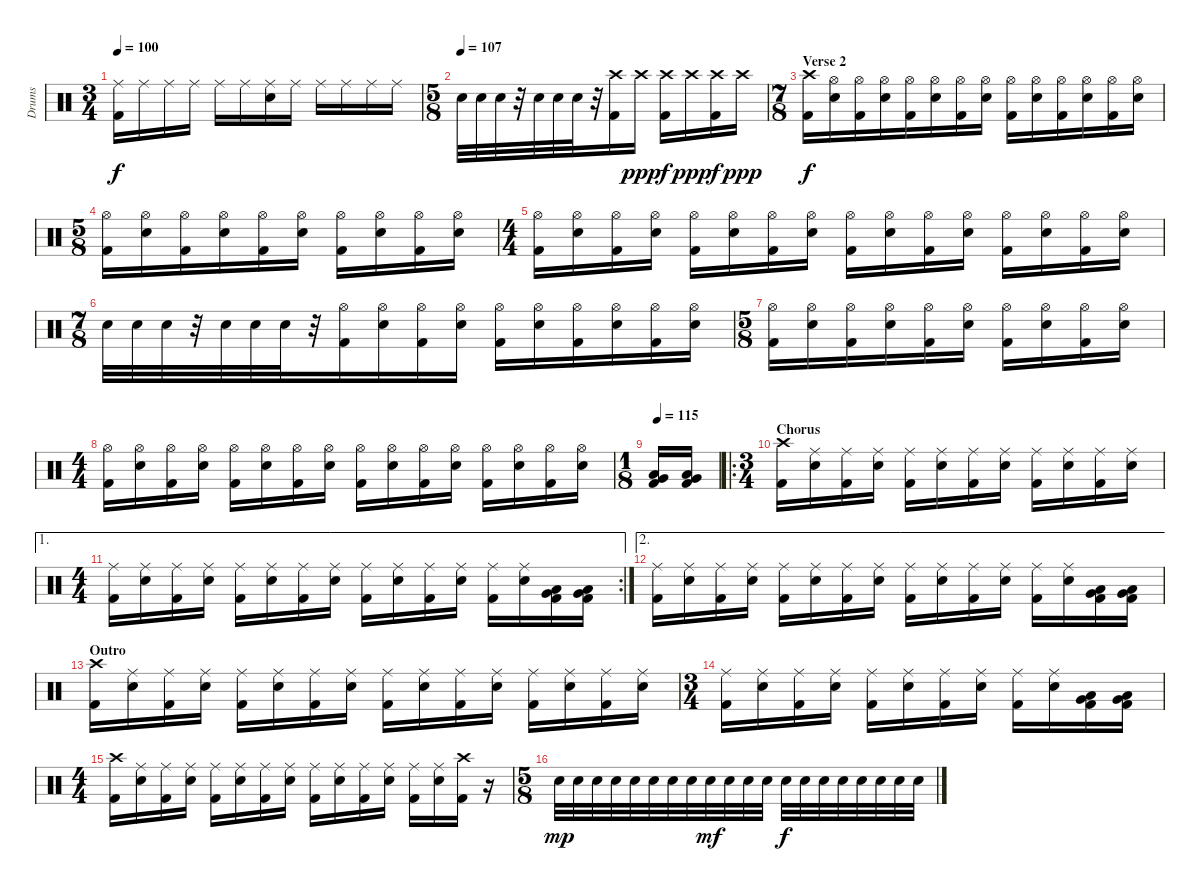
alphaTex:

\track ("Drums" "Drums") {instrument percussion}
\staff {score}
\articulation defaults
\ts (3 4)
\tempo 100
\clef neutral
\ks c
("Ride (middle)" "Kick (hit) 2").16{dy f} "Ride (middle)".16 "Ride (middle)".16 "Ride (middle)".16 "Ride (middle)".16 "Ride (middle)".16 ("Ride (middle)" "Electric Snare (hit)").16 "Ride (middle)".16 "Ride (middle)".16 "Ride (middle)".16 "Ride (middle)".16 "Ride (middle)".16 |
\ts (5 8)
\tempo (107)
"Electric Snare (hit)".32 "Electric Snare (hit)".32 "Electric Snare (hit)".32 r.32 "Electric Snare (hit)".32 "Electric Snare (hit)".32 "Electric Snare (hit)".32 r.32 ("Crash high (hit)" "Kick (hit) 2").16 "Crash high (hit)".16{dy ppp} ("Crash high (hit)" "Kick (hit) 2").16{dy f} "Crash high (hit)".16{dy ppp} ("Crash high (hit)" "Kick (hit) 2").16{dy f} "Crash high (hit)".16{dy ppp} |
\ts (7 8)
\section ("" "Verse 2")
("Crash high (hit)" "Kick (hit) 2").16{dy f} ("Hi-Hat (open)" "Electric Snare (hit)").16 ("Hi-Hat (open)" "Kick (hit) 2").16 ("Hi-Hat (open)" "Electric Snare (hit)").16 ("Hi-Hat (open)" "Kick (hit) 2").16 ("Hi-Hat (open)" "Electric Snare (hit)").16 ("Hi-Hat (open)" "Kick (hit) 2").16 ("Hi-Hat (open)" "Electric Snare (hit)").16 ("Hi-Hat (open)" "Kick (hit) 2").16 ("Hi-Hat (open)" "Electric Snare (hit)").16 ("Hi-Hat (open)" "Kick (hit) 2").16 ("Hi-Hat (open)" "Electric Snare (hit)").16 ("Hi-Hat (open)" "Kick (hit) 2").16 ("Hi-Hat (open)" "Electric Snare (hit)").16 |
\ts (5 8)
("Hi-Hat (open)" "Kick (hit) 2").16 ("Hi-Hat (open)" "Electric Snare (hit)").16 ("Hi-Hat (open)" "Kick (hit) 2").16 ("Hi-Hat (open)" "Electric Snare (hit)").16 ("Hi-Hat (open)" "Kick (hit) 2").16 ("Hi-Hat (open)" "Electric Snare (hit)").16 ("Hi-Hat (open)" "Kick (hit) 2").16 ("Hi-Hat (open)" "Electric Snare (hit)").16 ("Hi-Hat (open)" "Kick (hit) 2").16 ("Hi-Hat (open)" "Electric Snare (hit)").16 |
\ts (4 4)
("Hi-Hat (open)" "Kick (hit) 2").16 ("Hi-Hat (open)" "Electric Snare (hit)").16 ("Hi-Hat (open)" "Kick (hit) 2").16 ("Hi-Hat (open)" "Electric Snare (hit)").16 ("Hi-Hat (open)" "Kick (hit) 2").16 ("Hi-Hat (open)" "Electric Snare (hit)").16 ("Hi-Hat (open)" "Kick (hit) 2").16 ("Hi-Hat (open)" "Electric Snare (hit)").16 ("Hi-Hat (open)" "Kick (hit) 2").16 ("Hi-Hat (open)" "Electric Snare (hit)").16 ("Hi-Hat (open)" "Kick (hit) 2").16 ("Hi-Hat (open)" "Electric Snare (hit)").16 ("Hi-Hat (open)" "Kick (hit) 2").16 ("Hi-Hat (open)" "Electric Snare (hit)").16 ("Hi-Hat (open)" "Kick (hit) 2").16 ("Hi-Hat (open)" "Electric Snare (hit)").16 |
\ts (7 8)
"Electric Snare (hit)".32 "Electric Snare (hit)".32 "Electric Snare (hit)".32 r.32 "Electric Snare (hit)".32 "Electric Snare (hit)".32 "Electric Snare (hit)".32 r.32 ("Hi-Hat (open)" "Kick (hit) 2").16 ("Hi-Hat (open)" "Electric Snare (hit)").16 ("Hi-Hat (open)" "Kick (hit) 2").16 ("Hi-Hat (open)" "Electric Snare (hit)").16 ("Hi-Hat (open)" "Kick (hit) 2").16 ("Hi-Hat (open)" "Electric Snare (hit)").16 ("Hi-Hat (open)" "Kick (hit) 2").16 ("Hi-Hat (open)" "Electric Snare (hit)").16 ("Hi-Hat (open)" "Kick (hit) 2").16 ("Hi-Hat (open)" "Electric Snare (hit)").16 |
\ts (5 8)
("Hi-Hat (open)" "Kick (hit) 2").16 ("Hi-Hat (open)" "Electric Snare (hit)").16 ("Hi-Hat (open)" "Kick (hit) 2").16 ("Hi-Hat (open)" "Electric Snare (hit)").16 ("Hi-Hat (open)" "Kick (hit) 2").16 ("Hi-Hat (open)" "Electric Snare (hit)").16 ("Hi-Hat (open)" "Kick (hit) 2").16 ("Hi-Hat (open)" "Electric Snare (hit)").16 ("Hi-Hat (open)" "Kick (hit) 2").16 ("Hi-Hat (open)" "Electric Snare (hit)").16 |
\ts (4 4)
("Hi-Hat (open)" "Kick (hit) 2").16 ("Hi-Hat (open)" "Electric Snare (hit)").16 ("Hi-Hat (open)" "Kick (hit) 2").16 ("Hi-Hat (open)" "Electric Snare (hit)").16 ("Hi-Hat (open)" "Kick (hit) 2").16 ("Hi-Hat (open)" "Electric Snare (hit)").16 ("Hi-Hat (open)" "Kick (hit) 2").16 ("Hi-Hat (open)" "Electric Snare (hit)").16 ("Hi-Hat (open)" "Kick (hit) 2").16 ("Hi-Hat (open)" "Electric Snare (hit)").16 ("Hi-Hat (open)" "Kick (hit) 2").16 ("Hi-Hat (open)" "Electric Snare (hit)").16 ("Hi-Hat (open)" "Kick (hit) 2").16 ("Hi-Hat (open)" "Electric Snare (hit)").16 ("Hi-Hat (open)" "Kick (hit) 2").16 ("Hi-Hat (open)" "Electric Snare (hit)").16 |
\ts (1 8)
\tempo 115
("Very Low Tom (hit)" "Low Floor Tom (hit)" "Kick (hit) 2").16 ("Very Low Tom (hit)" "Low Floor Tom (hit)" "Kick (hit) 2").16 |
\ro
\ts (3 4)
\section ("" "Chorus")
("Crash high (hit)" "Kick (hit) 2").16 ("Ride (middle)" "Electric Snare (hit)").16 ("Ride (middle)" "Kick (hit) 2").16 ("Ride (middle)" "Electric Snare (hit)").16 ("Ride (middle)" "Kick (hit) 2").16 ("Ride (middle)" "Electric Snare (hit)").16 ("Ride (middle)" "Kick (hit) 2").16 ("Ride (middle)" "Electric Snare (hit)").16 ("Ride (middle)" "Kick (hit) 2").16 ("Ride (middle)" "Electric Snare (hit)").16 ("Ride (middle)" "Kick (hit) 2").16 ("Ride (middle)" "Electric Snare (hit)").16 |
\ae 1
\rc 2
\ts (4 4)
("Ride (middle)" "Kick (hit) 2").16 ("Ride (middle)" "Electric Snare (hit)").16 ("Ride (middle)" "Kick (hit) 2").16 ("Ride (middle)" "Electric Snare (hit)").16 ("Ride (middle)" "Kick (hit) 2").16 ("Ride (middle)" "Electric Snare (hit)").16 ("Ride (middle)" "Kick (hit) 2").16 ("Ride (middle)" "Electric Snare (hit)").16 ("Ride (middle)" "Kick (hit) 2").16 ("Ride (middle)" "Electric Snare (hit)").16 ("Ride (middle)" "Kick (hit) 2").16 ("Ride (middle)" "Electric Snare (hit)").16 ("Ride (middle)" "Kick (hit) 2").16 ("Ride (middle)" "Electric Snare (hit)").16 ("Very Low Tom (hit)" "Low Floor Tom (hit)" "Kick (hit) 2").16 ("Very Low Tom (hit)" "Low Floor Tom (hit)" "Kick (hit) 2").16 |
\ae 2
("Ride (middle)" "Kick (hit) 2").16 ("Ride (middle)" "Electric Snare (hit)").16 ("Ride (middle)" "Kick (hit) 2").16 ("Ride (middle)" "Electric Snare (hit)").16 ("Ride (middle)" "Kick (hit) 2").16 ("Ride (middle)" "Electric Snare (hit)").16 ("Ride (middle)" "Kick (hit) 2").16 ("Ride (middle)" "Electric Snare (hit)").16 ("Ride (middle)" "Kick (hit) 2").16 ("Ride (middle)" "Electric Snare (hit)").16 ("Ride (middle)" "Kick (hit) 2").16 ("Ride (middle)" "Electric Snare (hit)").16 ("Ride (middle)" "Kick (hit) 2").16 ("Ride (middle)" "Electric Snare (hit)").16 ("Very Low Tom (hit)" "Low Floor Tom (hit)" "Kick (hit) 2").16 ("Very Low Tom (hit)" "Low Floor Tom (hit)" "Kick (hit) 2").16 |
\section ("" "Outro")
("Crash high (hit)" "Kick (hit) 2").16 ("Ride (middle)" "Electric Snare (hit)").16 ("Ride (middle)" "Kick (hit) 2").16 ("Ride (middle)" "Electric Snare (hit)").16 ("Ride (middle)" "Kick (hit) 2").16 ("Ride (middle)" "Electric Snare (hit)").16 ("Ride (middle)" "Kick (hit) 2").16 ("Ride (middle)" "Electric Snare (hit)").16 ("Ride (middle)" "Kick (hit) 2").16 ("Ride (middle)" "Electric Snare (hit)").16 ("Ride (middle)" "Kick (hit) 2").16 ("Ride (middle)" "Electric Snare (hit)").16 ("Ride (middle)" "Kick (hit) 2").16 ("Ride (middle)" "Electric Snare (hit)").16 ("Ride (middle)" "Kick (hit) 2").16 ("Ride (middle)" "Electric Snare (hit)").16 |
\ts (3 4)
("Ride (middle)" "Kick (hit) 2").16 ("Ride (middle)" "Electric Snare (hit)").16 ("Ride (middle)" "Kick (hit) 2").16 ("Ride (middle)" "Electric Snare (hit)").16 ("Ride (middle)" "Kick (hit) 2").16 ("Ride (middle)" "Electric Snare (hit)").16 ("Ride (middle)" "Kick (hit) 2").16 ("Ride (middle)" "Electric Snare (hit)").16 ("Ride (middle)" "Kick (hit) 2").16 ("Ride (middle)" "Electric Snare (hit)").16 ("Very Low Tom (hit)" "Low Floor Tom (hit)" "Kick (hit) 2").16 ("Very Low Tom (hit)" "Low Floor Tom (hit)" "Kick (hit) 2").16 |
\ts (4 4)
("Crash high (hit)" "Kick (hit) 2").16 ("Ride (middle)" "Electric Snare (hit)").16 ("Ride (middle)" "Kick (hit) 2").16 ("Ride (middle)" "Electric Snare (hit)").16 ("Ride (middle)" "Kick (hit) 2").16 ("Ride (middle)" "Electric Snare (hit)").16 ("Ride (middle)" "Kick (hit) 2").16 ("Ride (middle)" "Electric Snare (hit)").16 ("Ride (middle)" "Kick (hit) 2").16 ("Ride (middle)" "Electric Snare (hit)").16 ("Ride (middle)" "Kick (hit) 2").16 ("Ride (middle)" "Electric Snare (hit)").16 ("Ride (middle)" "Kick (hit) 2").16 ("Ride (middle)" "Electric Snare (hit)").16 ("Crash high (hit)" "Kick (hit) 2").16 r.16 |
\ts (5 8)
"Electric Snare (hit)".32{dy mp} "Electric Snare (hit)".32 "Electric Snare (hit)".32 "Electric Snare (hit)".32 "Electric Snare (hit)".32 "Electric Snare (hit)".32 "Electric Snare (hit)".32 "Electric Snare (hit)".32 "Electric Snare (hit)".32{dy mf} "Electric Snare (hit)".32 "Electric Snare (hit)".32 "Electric Snare (hit)".32 "Electric Snare (hit)".32{dy f} "Electric Snare (hit)".32 "Electric Snare (hit)".32 "Electric Snare (hit)".32 "Electric Snare (hit)".32 "Electric Snare (hit)".32 "Electric Snare (hit)".32 "Electric Snare (hit)".32
